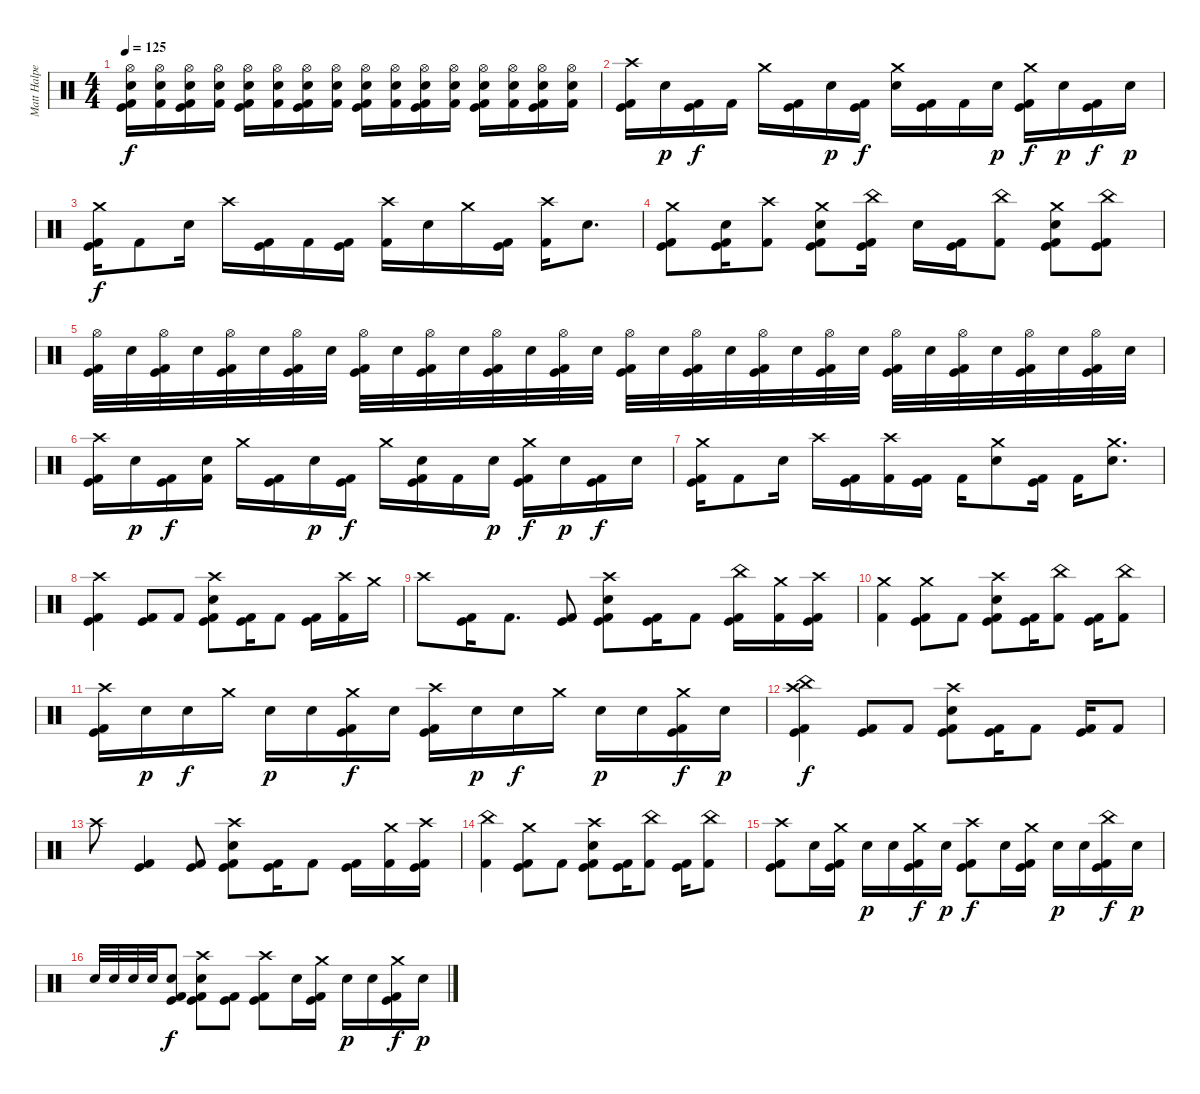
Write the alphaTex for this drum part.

\track ("Matt Halpern" "Matt Halpe") {instrument percussion}
\staff {score}
\articulation defaults
\ts (4 4)
\tempo 125
\clef neutral
\ks c
("Kick (hit) 2" "Kick (hit)" "Electric Snare (hit)" "Hi-Hat (open)").16{dy f} ("Kick (hit) 2" "Electric Snare (hit)" "Hi-Hat (open)").16 ("Kick (hit) 2" "Kick (hit)" "Electric Snare (hit)" "Hi-Hat (open)").16 ("Kick (hit) 2" "Electric Snare (hit)" "Hi-Hat (open)").16 ("Kick (hit) 2" "Kick (hit)" "Electric Snare (hit)" "Hi-Hat (open)").16 ("Kick (hit) 2" "Electric Snare (hit)" "Hi-Hat (open)").16 ("Kick (hit) 2" "Kick (hit)" "Electric Snare (hit)" "Hi-Hat (open)").16 ("Kick (hit) 2" "Electric Snare (hit)" "Hi-Hat (open)").16 ("Kick (hit) 2" "Kick (hit)" "Electric Snare (hit)" "Hi-Hat (open)").16 ("Kick (hit) 2" "Electric Snare (hit)" "Hi-Hat (open)").16 ("Kick (hit) 2" "Kick (hit)" "Electric Snare (hit)" "Hi-Hat (open)").16 ("Kick (hit) 2" "Electric Snare (hit)" "Hi-Hat (open)").16 ("Kick (hit) 2" "Kick (hit)" "Electric Snare (hit)" "Hi-Hat (open)").16 ("Kick (hit) 2" "Electric Snare (hit)" "Hi-Hat (open)").16 ("Kick (hit) 2" "Kick (hit)" "Electric Snare (hit)" "Hi-Hat (open)").16 ("Kick (hit) 2" "Electric Snare (hit)" "Hi-Hat (open)").16 |
("Kick (hit) 2" "Kick (hit)" "Crash high (hit)").16 "Electric Snare (hit)".16{dy p} ("Kick (hit) 2" "Kick (hit)").16{dy f} "Kick (hit) 2".16 "Crash medium (hit)".16 ("Kick (hit) 2" "Kick (hit)").16 "Electric Snare (hit)".16{dy p} ("Kick (hit) 2" "Kick (hit)").16{dy f} ("Electric Snare (hit)" "Crash medium (hit)").16 ("Kick (hit) 2" "Kick (hit)").16 "Kick (hit) 2".16 "Electric Snare (hit)".16{dy p} ("Kick (hit) 2" "Kick (hit)" "Crash medium (hit)").16{dy f} "Electric Snare (hit)".16{dy p} ("Kick (hit) 2" "Kick (hit)").16{dy f} "Electric Snare (hit)".16{dy p} |
("Kick (hit) 2" "Kick (hit)" "Crash medium (hit)").16{dy f} "Kick (hit) 2".8 "Electric Snare (hit)".16 "Crash high (hit)".16 ("Kick (hit) 2" "Kick (hit)").16 "Kick (hit) 2".16 ("Kick (hit) 2" "Kick (hit)").16 ("Kick (hit) 2" "Crash high (hit)").16 "Electric Snare (hit)".16 "Crash medium (hit)".16 ("Kick (hit) 2" "Kick (hit)").16 ("Kick (hit) 2" "Crash high (hit)").16 "Electric Snare (hit)".8{d} |
("Kick (hit) 2" "Kick (hit)" "Crash medium (hit)").8 ("Kick (hit) 2" "Kick (hit)" "Electric Snare (hit)").16 ("Kick (hit) 2" "Crash high (hit)").8 ("Kick (hit) 2" "Kick (hit)" "Electric Snare (hit)" "Crash medium (hit)").8 ("Kick (hit) 2" "Kick (hit)" "China (hit)").16 "Electric Snare (hit)".16 ("Kick (hit) 2" "Kick (hit)").16 ("Kick (hit) 2" "China (hit)").8 ("Kick (hit) 2" "Kick (hit)" "Electric Snare (hit)" "Crash medium (hit)").8 ("Kick (hit) 2" "Kick (hit)" "China (hit)").8 |
("Kick (hit) 2" "Kick (hit)" "Hi-Hat (open)").32 "Electric Snare (hit)".32 ("Kick (hit) 2" "Kick (hit)" "Hi-Hat (open)").32 "Electric Snare (hit)".32 ("Kick (hit) 2" "Kick (hit)" "Hi-Hat (open)").32 "Electric Snare (hit)".32 ("Kick (hit) 2" "Kick (hit)" "Hi-Hat (open)").32 "Electric Snare (hit)".32 ("Kick (hit) 2" "Kick (hit)" "Hi-Hat (open)").32 "Electric Snare (hit)".32 ("Kick (hit) 2" "Kick (hit)" "Hi-Hat (open)").32 "Electric Snare (hit)".32 ("Kick (hit) 2" "Kick (hit)" "Hi-Hat (open)").32 "Electric Snare (hit)".32 ("Kick (hit) 2" "Kick (hit)" "Hi-Hat (open)").32 "Electric Snare (hit)".32 ("Kick (hit) 2" "Kick (hit)" "Hi-Hat (open)").32 "Electric Snare (hit)".32 ("Kick (hit) 2" "Kick (hit)" "Hi-Hat (open)").32 "Electric Snare (hit)".32 ("Kick (hit) 2" "Kick (hit)" "Hi-Hat (open)").32 "Electric Snare (hit)".32 ("Kick (hit) 2" "Kick (hit)" "Hi-Hat (open)").32 "Electric Snare (hit)".32 ("Kick (hit) 2" "Kick (hit)" "Hi-Hat (open)").32 "Electric Snare (hit)".32 ("Kick (hit) 2" "Kick (hit)" "Hi-Hat (open)").32 "Electric Snare (hit)".32 ("Kick (hit) 2" "Kick (hit)" "Hi-Hat (open)").32 "Electric Snare (hit)".32 ("Kick (hit) 2" "Kick (hit)" "Hi-Hat (open)").32 "Electric Snare (hit)".32 |
("Kick (hit) 2" "Kick (hit)" "Crash high (hit)").16 "Electric Snare (hit)".16{dy p} ("Kick (hit) 2" "Kick (hit)").16{dy f} ("Kick (hit) 2" "Electric Snare (hit)").16 "Crash medium (hit)".16 ("Kick (hit) 2" "Kick (hit)").16 "Electric Snare (hit)".16{dy p} ("Kick (hit) 2" "Kick (hit)").16{dy f} "Crash medium (hit)".16 ("Kick (hit) 2" "Kick (hit)" "Electric Snare (hit)").16 "Kick (hit) 2".16 "Electric Snare (hit)".16{dy p} ("Kick (hit) 2" "Kick (hit)" "Crash medium (hit)").16{dy f} "Electric Snare (hit)".16{dy p} ("Kick (hit) 2" "Kick (hit)").16{dy f} "Electric Snare (hit)".16 |
("Kick (hit) 2" "Kick (hit)" "Crash medium (hit)").16 "Kick (hit) 2".8 "Electric Snare (hit)".16 "Crash high (hit)".16 ("Kick (hit) 2" "Kick (hit)").16 ("Kick (hit) 2" "Crash high (hit)").16 ("Kick (hit) 2" "Kick (hit)").16 "Kick (hit) 2".16 ("Electric Snare (hit)" "Crash medium (hit)").8 ("Kick (hit) 2" "Kick (hit)").16 "Kick (hit) 2".16 ("Electric Snare (hit)" "Crash medium (hit)").8{d} |
("Kick (hit) 2" "Kick (hit)" "Crash high (hit)").4 ("Kick (hit) 2" "Kick (hit)").8 "Kick (hit) 2".8 ("Kick (hit) 2" "Kick (hit)" "Electric Snare (hit)" "Crash high (hit)").8 ("Kick (hit) 2" "Kick (hit)").16 "Kick (hit) 2".8 ("Kick (hit) 2" "Kick (hit)").16 ("Kick (hit) 2" "Crash high (hit)").16 "Crash medium (hit)".16 |
"Crash high (hit)".8 ("Kick (hit) 2" "Kick (hit)").16 "Kick (hit) 2".8{d} ("Kick (hit) 2" "Kick (hit)").8 ("Kick (hit) 2" "Kick (hit)" "Electric Snare (hit)" "Crash high (hit)").8 ("Kick (hit) 2" "Kick (hit)").16 "Kick (hit) 2".8 ("Kick (hit) 2" "Kick (hit)" "China (hit)").16 ("Kick (hit) 2" "Crash medium (hit)").16 ("Kick (hit) 2" "Kick (hit)" "Crash high (hit)").16 |
("Kick (hit) 2" "Crash medium (hit)").4 ("Kick (hit) 2" "Kick (hit)" "Crash medium (hit)").8 "Kick (hit) 2".8 ("Kick (hit) 2" "Kick (hit)" "Electric Snare (hit)" "Crash high (hit)").8 ("Kick (hit) 2" "Kick (hit)").16 ("Kick (hit) 2" "China (hit)").8 ("Kick (hit) 2" "Kick (hit)").16 ("Kick (hit) 2" "China (hit)").8 |
("Kick (hit) 2" "Kick (hit)" "Crash high (hit)").16 "Electric Snare (hit)".16{dy p} "Electric Snare (hit)".16{dy f} "Crash medium (hit)".16 "Electric Snare (hit)".16{dy p} "Electric Snare (hit)".16 ("Kick (hit) 2" "Kick (hit)" "Crash medium (hit)").16{dy f} "Electric Snare (hit)".16 ("Kick (hit) 2" "Kick (hit)" "Crash high (hit)").16 "Electric Snare (hit)".16{dy p} "Electric Snare (hit)".16{dy f} "Crash medium (hit)".16 "Electric Snare (hit)".16{dy p} "Electric Snare (hit)".16 ("Kick (hit) 2" "Kick (hit)" "Crash medium (hit)").16{dy f} "Electric Snare (hit)".16{dy p} |
("Kick (hit) 2" "Kick (hit)" "China (hit)" "Crash high (hit)").4{dy f} ("Kick (hit) 2" "Kick (hit)").8 "Kick (hit) 2".8 ("Kick (hit) 2" "Kick (hit)" "Electric Snare (hit)" "Crash high (hit)").8 ("Kick (hit) 2" "Kick (hit)").16 "Kick (hit) 2".8 ("Kick (hit) 2" "Kick (hit)").16 "Kick (hit) 2".8 |
"Crash high (hit)".8 ("Kick (hit) 2" "Kick (hit)").4 ("Kick (hit) 2" "Kick (hit)").8 ("Kick (hit) 2" "Kick (hit)" "Electric Snare (hit)" "Crash high (hit)").8 ("Kick (hit) 2" "Kick (hit)").16 "Kick (hit) 2".8 ("Kick (hit) 2" "Kick (hit)").16 ("Kick (hit) 2" "Crash medium (hit)").16 ("Kick (hit) 2" "Kick (hit)" "Crash high (hit)").16 |
("Kick (hit) 2" "China (hit)").4 ("Kick (hit) 2" "Kick (hit)" "Crash medium (hit)").8 "Kick (hit) 2".8 ("Kick (hit) 2" "Kick (hit)" "Electric Snare (hit)" "Crash high (hit)").8 ("Kick (hit) 2" "Kick (hit)").16 ("Kick (hit) 2" "China (hit)").8 ("Kick (hit) 2" "Kick (hit)").16 ("Kick (hit) 2" "China (hit)").8 |
("Kick (hit) 2" "Kick (hit)" "Crash high (hit)").8 "Electric Snare (hit)".16 ("Kick (hit) 2" "Kick (hit)" "Crash medium (hit)").16 "Electric Snare (hit)".16{dy p} "Electric Snare (hit)".16 ("Kick (hit) 2" "Kick (hit)" "Crash medium (hit)").16{dy f} "Electric Snare (hit)".16{dy p} ("Kick (hit) 2" "Kick (hit)" "Crash high (hit)").8{dy f} "Electric Snare (hit)".16 ("Kick (hit) 2" "Kick (hit)" "Crash medium (hit)").16 "Electric Snare (hit)".16{dy p} "Electric Snare (hit)".16 ("Kick (hit) 2" "Kick (hit)" "China (hit)").16{dy f} "Electric Snare (hit)".16{dy p} |
"Electric Snare (hit)".32 "Electric Snare (hit)".32 "Electric Snare (hit)".32 "Electric Snare (hit)".32 ("Kick (hit) 2" "Kick (hit)" "Electric Snare (hit)").8{dy f} ("Kick (hit) 2" "Kick (hit)" "Electric Snare (hit)" "Crash high (hit)").8 ("Kick (hit) 2" "Kick (hit)").8 ("Kick (hit) 2" "Kick (hit)" "Crash high (hit)").8 "Electric Snare (hit)".16 ("Kick (hit) 2" "Kick (hit)" "Crash medium (hit)").16 "Electric Snare (hit)".16{dy p} "Electric Snare (hit)".16 ("Kick (hit) 2" "Kick (hit)" "Crash medium (hit)").16{dy f} "Electric Snare (hit)".16{dy p}
